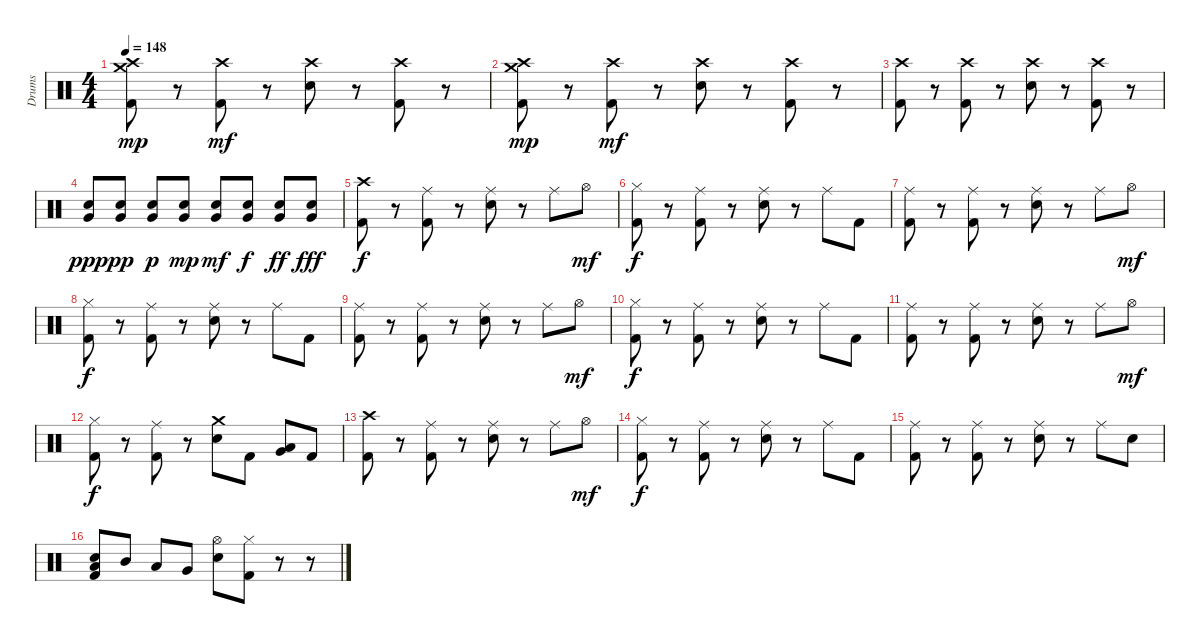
\track ("Drums" "Drums") {instrument percussion}
\staff {score}
\articulation defaults
\ts (4 4)
\tempo 148
\clef neutral
\ks c
("Crash high (hit)" "Crash medium (hit)" "Kick (hit) 2").8{dy mp} r.8 ("Crash high (hit)" "Kick (hit) 2").8{dy mf} r.8 ("Crash high (hit)" "Snare (hit) 2").8 r.8 ("Crash high (hit)" "Kick (hit) 2").8 r.8 |
("Crash high (hit)" "Crash medium (hit)" "Kick (hit) 2").8{dy mp} r.8 ("Crash high (hit)" "Kick (hit) 2").8{dy mf} r.8 ("Crash high (hit)" "Snare (hit) 2").8 r.8 ("Crash high (hit)" "Kick (hit) 2").8 r.8 |
("Crash high (hit)" "Kick (hit) 2").8 r.8 ("Crash high (hit)" "Kick (hit) 2").8 r.8 ("Crash high (hit)" "Snare (hit) 2").8 r.8 ("Crash high (hit)" "Kick (hit) 2").8 r.8 |
("Snare (hit) 2" "Very Low Tom (hit)").8{dy ppp} ("Snare (hit) 2" "Very Low Tom (hit)").8{dy pp} ("Snare (hit) 2" "Very Low Tom (hit)").8{dy p} ("Snare (hit) 2" "Very Low Tom (hit)").8{dy mp} ("Snare (hit) 2" "Very Low Tom (hit)").8{dy mf} ("Snare (hit) 2" "Very Low Tom (hit)").8{dy f} ("Snare (hit) 2" "Very Low Tom (hit)").8{dy ff} ("Snare (hit) 2" "Very Low Tom (hit)").8{dy fff} |
("Crash high (hit)" "Kick (hit) 2").8{dy f} r.8 ("Ride (middle)" "Kick (hit) 2").8 r.8 ("Ride (middle)" "Snare (hit) 2").8 r.8 "Ride (middle)".8 "Hi-Hat (open)".8{dy mf} |
("Hi-Hat (closed)" "Kick (hit) 2").8{dy f} r.8 ("Ride (middle)" "Kick (hit) 2").8 r.8 ("Ride (middle)" "Snare (hit) 2").8 r.8 "Ride (middle)".8 "Kick (hit) 2".8 |
("Ride (middle)" "Kick (hit) 2").8 r.8 ("Ride (middle)" "Kick (hit) 2").8 r.8 ("Ride (middle)" "Snare (hit) 2").8 r.8 "Ride (middle)".8 "Hi-Hat (open)".8{dy mf} |
("Hi-Hat (closed)" "Kick (hit) 2").8{dy f} r.8 ("Ride (middle)" "Kick (hit) 2").8 r.8 ("Ride (middle)" "Snare (hit) 2").8 r.8 "Ride (middle)".8 "Kick (hit) 2".8 |
("Ride (middle)" "Kick (hit) 2").8 r.8 ("Ride (middle)" "Kick (hit) 2").8 r.8 ("Ride (middle)" "Snare (hit) 2").8 r.8 "Ride (middle)".8 "Hi-Hat (open)".8{dy mf} |
("Hi-Hat (closed)" "Kick (hit) 2").8{dy f} r.8 ("Ride (middle)" "Kick (hit) 2").8 r.8 ("Ride (middle)" "Snare (hit) 2").8 r.8 "Ride (middle)".8 "Kick (hit) 2".8 |
("Ride (middle)" "Kick (hit) 2").8 r.8 ("Ride (middle)" "Kick (hit) 2").8 r.8 ("Ride (middle)" "Snare (hit) 2").8 r.8 "Ride (middle)".8 "Hi-Hat (open)".8{dy mf} |
("Hi-Hat (closed)" "Kick (hit) 2").8{dy f} r.8 ("Ride (middle)" "Kick (hit) 2").8 r.8 ("Crash medium (hit)" "Snare (hit) 2").8 "Kick (hit) 2".8 ("Very Low Tom (hit)" "Low Floor Tom (hit)").8 "Kick (hit) 2".8 |
("Crash high (hit)" "Kick (hit) 2").8 r.8 ("Ride (middle)" "Kick (hit) 2").8 r.8 ("Ride (middle)" "Snare (hit) 2").8 r.8 "Ride (middle)".8 "Hi-Hat (open)".8{dy mf} |
("Hi-Hat (closed)" "Kick (hit) 2").8{dy f} r.8 ("Ride (middle)" "Kick (hit) 2").8 r.8 ("Ride (middle)" "Snare (hit) 2").8 r.8 "Ride (middle)".8 "Kick (hit) 2".8 |
("Ride (middle)" "Kick (hit) 2").8 r.8 ("Ride (middle)" "Kick (hit) 2").8 r.8 ("Ride (middle)" "Snare (hit) 2").8 r.8 "Ride (middle)".8 "Snare (hit) 2".8 |
("Low Floor Tom (hit)" "Snare (hit) 2" "Kick (hit) 2").8 "Mid Tom (hit)".8 "Low Tom (hit)".8 "Very Low Tom (hit)".8 ("Hi-Hat (open)" "Snare (hit) 2").8 ("Hi-Hat (closed)" "Kick (hit) 2").8 r.8 r.8
